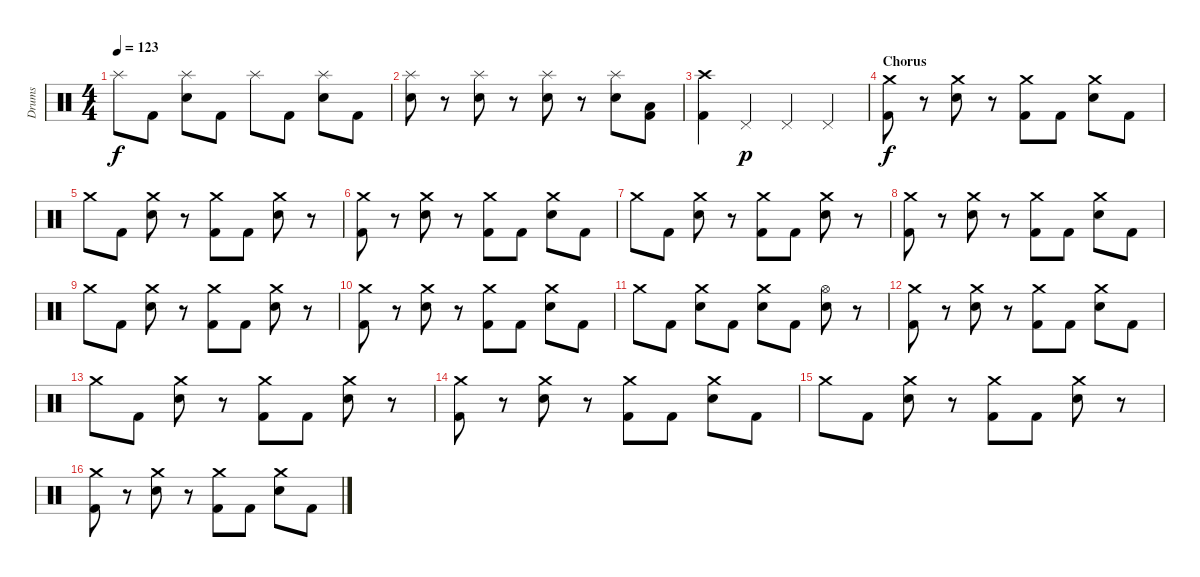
\track ("Drums" "Drums") {instrument percussion}
\staff {score}
\articulation defaults
\ts (4 4)
\tempo 123
\clef neutral
\ks c "Splash (hit)".8{dy f} "Kick (hit) 2".8
("Splash (hit)" "Electric Snare (hit)").8 "Kick (hit) 2".8 "Splash (hit)".8 "Kick (hit) 2".8 ("Splash (hit)" "Electric Snare (hit)").8 "Kick (hit) 2".8 |
("Splash (hit)" "Electric Snare (hit)").8 r.8 ("Splash (hit)" "Electric Snare (hit)").8 r.8 ("Splash (hit)" "Electric Snare (hit)").8 r.8 ("Splash (hit)" "Electric Snare (hit)").8 ("Low Floor Tom (hit)" "Kick (hit) 2").8 |
("Crash high (hit)" "Kick (hit) 2").4 "Pedal Hi-Hat (hit)".4{dy p} "Pedal Hi-Hat (hit)".4 "Pedal Hi-Hat (hit)".4 |
\section ("" "Chorus")
("Crash medium (hit)" "Kick (hit) 2").8{dy f} r.8 ("Crash medium (hit)" "Electric Snare (hit)").8 r.8 ("Crash medium (hit)" "Kick (hit) 2").8 "Kick (hit) 2".8 ("Crash medium (hit)" "Electric Snare (hit)").8 "Kick (hit) 2".8 |
"Crash medium (hit)".8 "Kick (hit) 2".8 ("Crash medium (hit)" "Electric Snare (hit)").8 r.8 ("Crash medium (hit)" "Kick (hit) 2").8 "Kick (hit) 2".8 ("Crash medium (hit)" "Electric Snare (hit)").8 r.8 |
("Crash medium (hit)" "Kick (hit) 2").8 r.8 ("Crash medium (hit)" "Electric Snare (hit)").8 r.8 ("Crash medium (hit)" "Kick (hit) 2").8 "Kick (hit) 2".8 ("Crash medium (hit)" "Electric Snare (hit)").8 "Kick (hit) 2".8 |
"Crash medium (hit)".8 "Kick (hit) 2".8 ("Crash medium (hit)" "Electric Snare (hit)").8 r.8 ("Crash medium (hit)" "Kick (hit) 2").8 "Kick (hit) 2".8 ("Crash medium (hit)" "Electric Snare (hit)").8 r.8 |
("Crash medium (hit)" "Kick (hit) 2").8 r.8 ("Crash medium (hit)" "Electric Snare (hit)").8 r.8 ("Crash medium (hit)" "Kick (hit) 2").8 "Kick (hit) 2".8 ("Crash medium (hit)" "Electric Snare (hit)").8 "Kick (hit) 2".8 |
"Crash medium (hit)".8 "Kick (hit) 2".8 ("Crash medium (hit)" "Electric Snare (hit)").8 r.8 ("Crash medium (hit)" "Kick (hit) 2").8 "Kick (hit) 2".8 ("Crash medium (hit)" "Electric Snare (hit)").8 r.8 |
("Crash medium (hit)" "Kick (hit) 2").8 r.8 ("Crash medium (hit)" "Electric Snare (hit)").8 r.8 ("Crash medium (hit)" "Kick (hit) 2").8 "Kick (hit) 2".8 ("Crash medium (hit)" "Electric Snare (hit)").8 "Kick (hit) 2".8 |
"Crash medium (hit)".8 "Kick (hit) 2".8 ("Crash medium (hit)" "Electric Snare (hit)").8 "Kick (hit) 2".8 ("Crash medium (hit)" "Electric Snare (hit)").8 "Kick (hit) 2".8 ("Hi-Hat (open)" "Electric Snare (hit)").8 r.8 |
("Crash medium (hit)" "Kick (hit) 2").8 r.8 ("Crash medium (hit)" "Electric Snare (hit)").8 r.8 ("Crash medium (hit)" "Kick (hit) 2").8 "Kick (hit) 2".8 ("Crash medium (hit)" "Electric Snare (hit)").8 "Kick (hit) 2".8 |
"Crash medium (hit)".8 "Kick (hit) 2".8 ("Crash medium (hit)" "Electric Snare (hit)").8 r.8 ("Crash medium (hit)" "Kick (hit) 2").8 "Kick (hit) 2".8 ("Crash medium (hit)" "Electric Snare (hit)").8 r.8 |
("Crash medium (hit)" "Kick (hit) 2").8 r.8 ("Crash medium (hit)" "Electric Snare (hit)").8 r.8 ("Crash medium (hit)" "Kick (hit) 2").8 "Kick (hit) 2".8 ("Crash medium (hit)" "Electric Snare (hit)").8 "Kick (hit) 2".8 |
"Crash medium (hit)".8 "Kick (hit) 2".8 ("Crash medium (hit)" "Electric Snare (hit)").8 r.8 ("Crash medium (hit)" "Kick (hit) 2").8 "Kick (hit) 2".8 ("Crash medium (hit)" "Electric Snare (hit)").8 r.8 |
("Crash medium (hit)" "Kick (hit) 2").8 r.8 ("Crash medium (hit)" "Electric Snare (hit)").8 r.8 ("Crash medium (hit)" "Kick (hit) 2").8 "Kick (hit) 2".8 ("Crash medium (hit)" "Electric Snare (hit)").8 "Kick (hit) 2".8
